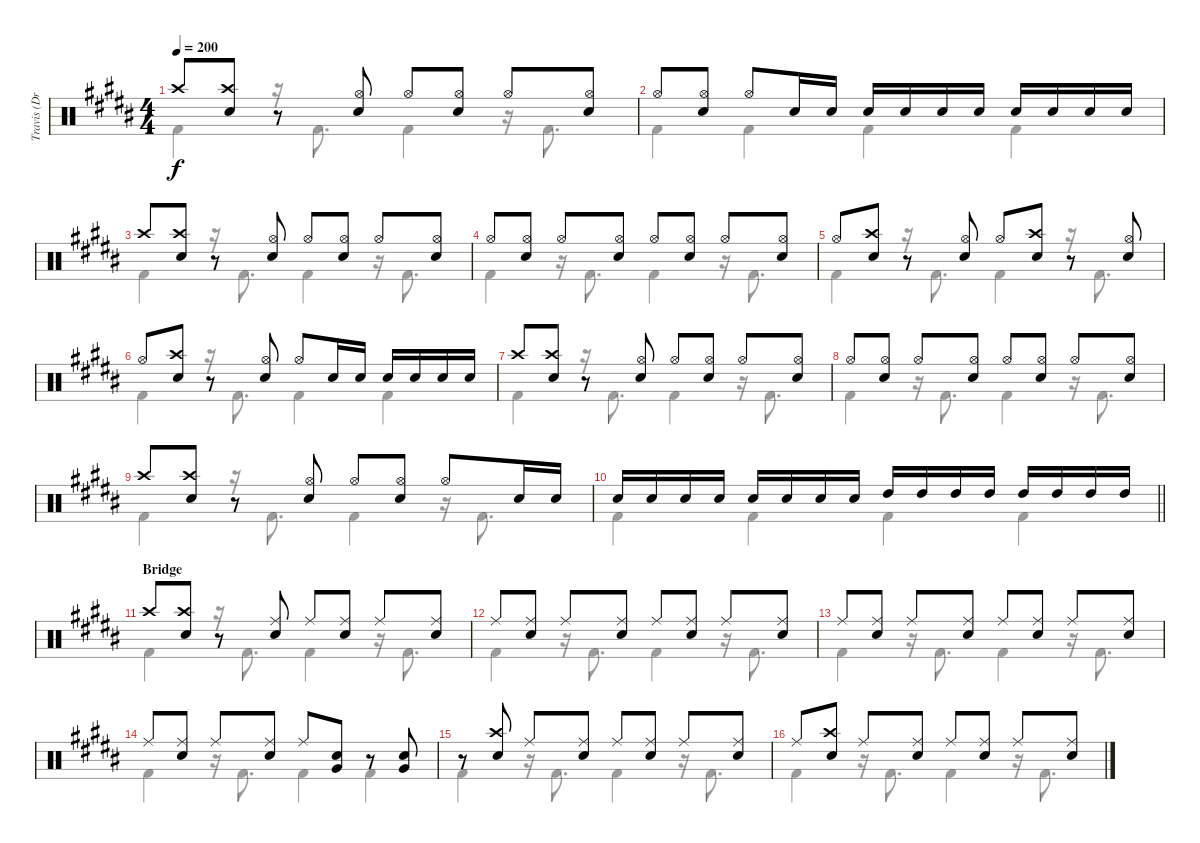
\track ("Travis (Drums)" "Travis (Dr") {instrument percussion}
\staff {score}
\articulation defaults
\voice
\ts (4 4)
\tempo 200
\clef neutral
\ks b "Crash high (hit)".8{dy f}
("Crash high (hit)" "Electric Snare (hit)").8 r.8 ("Electric Snare (hit)" "Hi-Hat (open)").8 "Hi-Hat (open)".8 ("Electric Snare (hit)" "Hi-Hat (open)").8 "Hi-Hat (open)".8 ("Electric Snare (hit)" "Hi-Hat (open)").8 |
"Hi-Hat (open)".8 ("Electric Snare (hit)" "Hi-Hat (open)").8 "Hi-Hat (open)".8 "Electric Snare (hit)".16 "Electric Snare (hit)".16 "Electric Snare (hit)".16 "Electric Snare (hit)".16 "Electric Snare (hit)".16 "Electric Snare (hit)".16 "Electric Snare (hit)".16 "Electric Snare (hit)".16 "Electric Snare (hit)".16 "Electric Snare (hit)".16 |
"Crash high (hit)".8 ("Crash high (hit)" "Electric Snare (hit)").8 r.8 ("Electric Snare (hit)" "Hi-Hat (open)").8 "Hi-Hat (open)".8 ("Electric Snare (hit)" "Hi-Hat (open)").8 "Hi-Hat (open)".8 ("Electric Snare (hit)" "Hi-Hat (open)").8 |
"Hi-Hat (open)".8 ("Electric Snare (hit)" "Hi-Hat (open)").8 "Hi-Hat (open)".8 ("Electric Snare (hit)" "Hi-Hat (open)").8 "Hi-Hat (open)".8 ("Electric Snare (hit)" "Hi-Hat (open)").8 "Hi-Hat (open)".8 ("Electric Snare (hit)" "Hi-Hat (open)").8 |
"Hi-Hat (open)".8 ("Crash high (hit)" "Electric Snare (hit)").8 r.8 ("Electric Snare (hit)" "Hi-Hat (open)").8 "Hi-Hat (open)".8 ("Crash high (hit)" "Electric Snare (hit)").8 r.8 ("Electric Snare (hit)" "Hi-Hat (open)").8 |
"Hi-Hat (open)".8 ("Crash high (hit)" "Electric Snare (hit)").8 r.8 ("Electric Snare (hit)" "Hi-Hat (open)").8 "Hi-Hat (open)".8 "Electric Snare (hit)".16 "Electric Snare (hit)".16 "Electric Snare (hit)".16 "Electric Snare (hit)".16 "Electric Snare (hit)".16 "Electric Snare (hit)".16 |
"Crash high (hit)".8 ("Crash high (hit)" "Electric Snare (hit)").8 r.8 ("Electric Snare (hit)" "Hi-Hat (open)").8 "Hi-Hat (open)".8 ("Electric Snare (hit)" "Hi-Hat (open)").8 "Hi-Hat (open)".8 ("Electric Snare (hit)" "Hi-Hat (open)").8 |
"Hi-Hat (open)".8 ("Electric Snare (hit)" "Hi-Hat (open)").8 "Hi-Hat (open)".8 ("Electric Snare (hit)" "Hi-Hat (open)").8 "Hi-Hat (open)".8 ("Electric Snare (hit)" "Hi-Hat (open)").8 "Hi-Hat (open)".8 ("Electric Snare (hit)" "Hi-Hat (open)").8 |
"Crash high (hit)".8 ("Crash high (hit)" "Electric Snare (hit)").8 r.8 ("Electric Snare (hit)" "Hi-Hat (open)").8 "Hi-Hat (open)".8 ("Electric Snare (hit)" "Hi-Hat (open)").8 "Hi-Hat (open)".8 "Electric Snare (hit)".16 "Electric Snare (hit)".16 |
\barLineRight lightlight "Electric Snare (hit)".16 "Electric Snare (hit)".16 "Electric Snare (hit)".16 "Electric Snare (hit)".16 "Electric Snare (hit)".16 "Electric Snare (hit)".16 "Electric Snare (hit)".16 "Electric Snare (hit)".16 "High Tom (hit)".16 "High Tom (hit)".16 "High Tom (hit)".16 "High Tom (hit)".16 "High Tom (hit)".16 "High Tom (hit)".16 "High Tom (hit)".16 "High Tom (hit)".16
|
\section ("" "Bridge")
"Crash high (hit)".8 ("Crash high (hit)" "Electric Snare (hit)").8 r.8 ("Ride (middle)" "Electric Snare (hit)").8 "Ride (middle)".8 ("Ride (middle)" "Electric Snare (hit)").8 "Ride (middle)".8 ("Ride (middle)" "Electric Snare (hit)").8 |
"Ride (middle)".8 ("Ride (middle)" "Electric Snare (hit)").8 "Ride (middle)".8 ("Ride (middle)" "Electric Snare (hit)").8 "Ride (middle)".8 ("Ride (middle)" "Electric Snare (hit)").8 "Ride (middle)".8 ("Ride (middle)" "Electric Snare (hit)").8 |
"Ride (middle)".8 ("Ride (middle)" "Electric Snare (hit)").8 "Ride (middle)".8 ("Ride (middle)" "Electric Snare (hit)").8 "Ride (middle)".8 ("Ride (middle)" "Electric Snare (hit)").8 "Ride (middle)".8 ("Ride (middle)" "Electric Snare (hit)").8 |
"Ride (middle)".8 ("Ride (middle)" "Electric Snare (hit)").8 "Ride (middle)".8 ("Ride (middle)" "Electric Snare (hit)").8 "Ride (middle)".8 ("Electric Snare (hit)" "Very Low Tom (hit)").8 r.8 ("Electric Snare (hit)" "Very Low Tom (hit)").8 |
r.8 ("Crash high (hit)" "Electric Snare (hit)").8 "Ride (middle)".8 ("Ride (middle)" "Electric Snare (hit)").8 "Ride (middle)".8 ("Ride (middle)" "Electric Snare (hit)").8 "Ride (middle)".8 ("Ride (middle)" "Electric Snare (hit)").8 |
"Ride (middle)".8 ("Crash high (hit)" "Electric Snare (hit)").8 "Ride (middle)".8 ("Ride (middle)" "Electric Snare (hit)").8 "Ride (middle)".8 ("Ride (middle)" "Electric Snare (hit)").8 "Ride (middle)".8 ("Ride (middle)" "Electric Snare (hit)").8
\voice
\clef neutral
\ottava regular
\simile none
\ks b "Kick (hit) 2".4{dy f}
r.16 "Kick (hit) 2".8{d} "Kick (hit) 2".4 r.16 "Kick (hit) 2".8{d} |
"Kick (hit) 2".4 "Kick (hit) 2".4 "Kick (hit) 2".4 "Kick (hit) 2".4 |
"Kick (hit) 2".4 r.16 "Kick (hit) 2".8{d} "Kick (hit) 2".4 r.16 "Kick (hit) 2".8{d} |
"Kick (hit) 2".4 r.16 "Kick (hit) 2".8{d} "Kick (hit) 2".4 r.16 "Kick (hit) 2".8{d} |
"Kick (hit) 2".4 r.16 "Kick (hit) 2".8{d} "Kick (hit) 2".4 r.16 "Kick (hit) 2".8{d} |
"Kick (hit) 2".4 r.16 "Kick (hit) 2".8{d} "Kick (hit) 2".4 "Kick (hit) 2".4 |
"Kick (hit) 2".4 r.16 "Kick (hit) 2".8{d} "Kick (hit) 2".4 r.16 "Kick (hit) 2".8{d} |
"Kick (hit) 2".4 r.16 "Kick (hit) 2".8{d} "Kick (hit) 2".4 r.16 "Kick (hit) 2".8{d} |
"Kick (hit) 2".4 r.16 "Kick (hit) 2".8{d} "Kick (hit) 2".4 r.16 "Kick (hit) 2".8{d} |
\barLineRight lightlight "Kick (hit) 2".4 "Kick (hit) 2".4 "Kick (hit) 2".4 "Kick (hit) 2".4
|
"Kick (hit) 2".4 r.16 "Kick (hit) 2".8{d} "Kick (hit) 2".4 r.16 "Kick (hit) 2".8{d} |
"Kick (hit) 2".4 r.16 "Kick (hit) 2".8{d} "Kick (hit) 2".4 r.16 "Kick (hit) 2".8{d} |
"Kick (hit) 2".4 r.16 "Kick (hit) 2".8{d} "Kick (hit) 2".4 r.16 "Kick (hit) 2".8{d} |
"Kick (hit) 2".4 r.16 "Kick (hit) 2".8{d} "Kick (hit) 2".4 "Kick (hit) 2".4 |
"Kick (hit) 2".4 r.16 "Kick (hit) 2".8{d} "Kick (hit) 2".4 r.16 "Kick (hit) 2".8{d} |
"Kick (hit) 2".4 r.16 "Kick (hit) 2".8{d} "Kick (hit) 2".4 r.16 "Kick (hit) 2".8{d}
